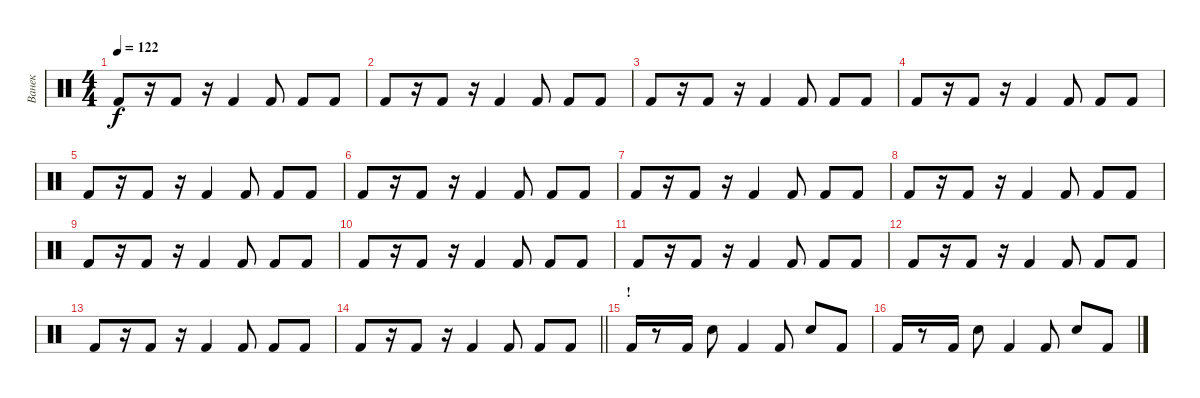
\track ("Ванек" "Ванек") {instrument percussion}
\staff {score}
\articulation defaults
\ts (4 4)
\tempo 122
\clef neutral
\ks c "Kick (hit) 2".8{dy f}
r.16 "Kick (hit) 2".8 r.16 "Kick (hit) 2".4 "Kick (hit) 2".8 "Kick (hit) 2".8 "Kick (hit) 2".8 |
"Kick (hit) 2".8 r.16 "Kick (hit) 2".8 r.16 "Kick (hit) 2".4 "Kick (hit) 2".8 "Kick (hit) 2".8 "Kick (hit) 2".8 |
"Kick (hit) 2".8 r.16 "Kick (hit) 2".8 r.16 "Kick (hit) 2".4 "Kick (hit) 2".8 "Kick (hit) 2".8 "Kick (hit) 2".8 |
"Kick (hit) 2".8 r.16 "Kick (hit) 2".8 r.16 "Kick (hit) 2".4 "Kick (hit) 2".8 "Kick (hit) 2".8 "Kick (hit) 2".8 |
"Kick (hit) 2".8 r.16 "Kick (hit) 2".8 r.16 "Kick (hit) 2".4 "Kick (hit) 2".8 "Kick (hit) 2".8 "Kick (hit) 2".8 |
"Kick (hit) 2".8 r.16 "Kick (hit) 2".8 r.16 "Kick (hit) 2".4 "Kick (hit) 2".8 "Kick (hit) 2".8 "Kick (hit) 2".8 |
"Kick (hit) 2".8 r.16 "Kick (hit) 2".8 r.16 "Kick (hit) 2".4 "Kick (hit) 2".8 "Kick (hit) 2".8 "Kick (hit) 2".8 |
"Kick (hit) 2".8 r.16 "Kick (hit) 2".8 r.16 "Kick (hit) 2".4 "Kick (hit) 2".8 "Kick (hit) 2".8 "Kick (hit) 2".8 |
"Kick (hit) 2".8 r.16 "Kick (hit) 2".8 r.16 "Kick (hit) 2".4 "Kick (hit) 2".8 "Kick (hit) 2".8 "Kick (hit) 2".8 |
"Kick (hit) 2".8 r.16 "Kick (hit) 2".8 r.16 "Kick (hit) 2".4 "Kick (hit) 2".8 "Kick (hit) 2".8 "Kick (hit) 2".8 |
"Kick (hit) 2".8 r.16 "Kick (hit) 2".8 r.16 "Kick (hit) 2".4 "Kick (hit) 2".8 "Kick (hit) 2".8 "Kick (hit) 2".8 |
"Kick (hit) 2".8 r.16 "Kick (hit) 2".8 r.16 "Kick (hit) 2".4 "Kick (hit) 2".8 "Kick (hit) 2".8 "Kick (hit) 2".8 |
"Kick (hit) 2".8 r.16 "Kick (hit) 2".8 r.16 "Kick (hit) 2".4 "Kick (hit) 2".8 "Kick (hit) 2".8 "Kick (hit) 2".8 |
\barLineRight lightlight "Kick (hit) 2".8
r.16 "Kick (hit) 2".8 r.16 "Kick (hit) 2".4 "Kick (hit) 2".8 "Kick (hit) 2".8 "Kick (hit) 2".8 |
\section ("" "!")
"Kick (hit) 2".16 r.8 "Kick (hit) 2".16 "Electric Snare (hit)".8 "Kick (hit) 2".4 "Kick (hit) 2".8 "Electric Snare (hit)".8 "Kick (hit) 2".8 |
"Kick (hit) 2".16 r.8 "Kick (hit) 2".16 "Electric Snare (hit)".8 "Kick (hit) 2".4 "Kick (hit) 2".8 "Electric Snare (hit)".8 "Kick (hit) 2".8
